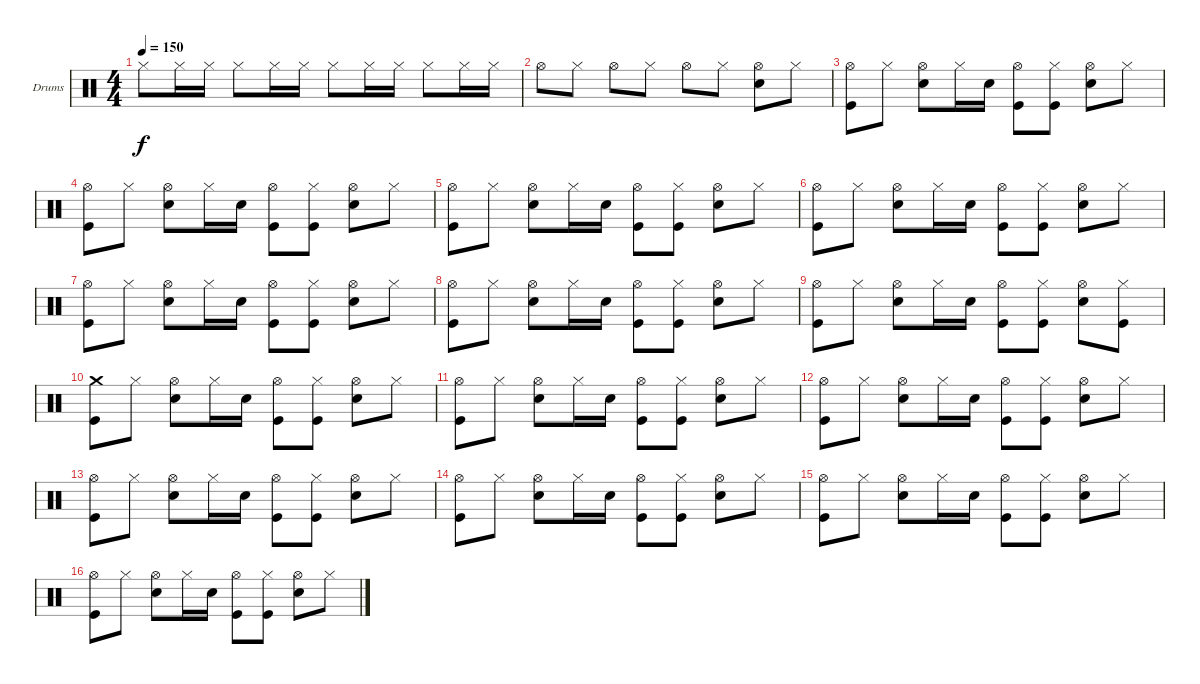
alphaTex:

\bracketExtendMode groupsimilarinstruments
\firstSystemTrackNameOrientation horizontal
\otherSystemsTrackNameOrientation horizontal
\track ("Drumkit" "Drums") {instrument percussion}
\staff {score}
\articulation defaults
\ts (4 4)
\beaming (8 2 2 2 2)
\tempo 150
\clef neutral
\ks c "Hi-Hat (closed)".8{dy f} "Hi-Hat (closed)".16 "Hi-Hat (closed)".16 "Hi-Hat (closed)".8 "Hi-Hat (closed)".16 "Hi-Hat (closed)".16 "Hi-Hat (closed)".8 "Hi-Hat (closed)".16 "Hi-Hat (closed)".16 "Hi-Hat (closed)".8 "Hi-Hat (closed)".16 "Hi-Hat (closed)".16
|
"Hi-Hat (open)".8 "Hi-Hat (closed)".8 "Hi-Hat (open)".8 "Hi-Hat (closed)".8 "Hi-Hat (open)".8 "Hi-Hat (closed)".8 ("Hi-Hat (open)" "Snare (hit) 2").8 "Hi-Hat (closed)".8 |
("Hi-Hat (open)" "Kick (hit)").8 "Hi-Hat (closed)".8 ("Hi-Hat (open)" "Snare (hit) 2").8 "Hi-Hat (closed)".16 "Snare (hit) 2".16 ("Hi-Hat (open)" "Kick (hit)").8 ("Hi-Hat (closed)" "Kick (hit)").8 ("Hi-Hat (open)" "Snare (hit) 2").8 "Hi-Hat (closed)".8 |
("Hi-Hat (open)" "Kick (hit)").8 "Hi-Hat (closed)".8 ("Hi-Hat (open)" "Snare (hit) 2").8 "Hi-Hat (closed)".16 "Snare (hit) 2".16 ("Hi-Hat (open)" "Kick (hit)").8 ("Hi-Hat (closed)" "Kick (hit)").8 ("Hi-Hat (open)" "Snare (hit) 2").8 "Hi-Hat (closed)".8 |
("Hi-Hat (open)" "Kick (hit)").8 "Hi-Hat (closed)".8 ("Hi-Hat (open)" "Snare (hit) 2").8 "Hi-Hat (closed)".16 "Snare (hit) 2".16 ("Hi-Hat (open)" "Kick (hit)").8 ("Hi-Hat (closed)" "Kick (hit)").8 ("Hi-Hat (open)" "Snare (hit) 2").8 "Hi-Hat (closed)".8 |
("Hi-Hat (open)" "Kick (hit)").8 "Hi-Hat (closed)".8 ("Hi-Hat (open)" "Snare (hit) 2").8 "Hi-Hat (closed)".16 "Snare (hit) 2".16 ("Hi-Hat (open)" "Kick (hit)").8 ("Hi-Hat (closed)" "Kick (hit)").8 ("Hi-Hat (open)" "Snare (hit) 2").8 "Hi-Hat (closed)".8 |
("Hi-Hat (open)" "Kick (hit)").8 "Hi-Hat (closed)".8 ("Hi-Hat (open)" "Snare (hit) 2").8 "Hi-Hat (closed)".16 "Snare (hit) 2".16 ("Hi-Hat (open)" "Kick (hit)").8 ("Hi-Hat (closed)" "Kick (hit)").8 ("Hi-Hat (open)" "Snare (hit) 2").8 "Hi-Hat (closed)".8 |
("Hi-Hat (open)" "Kick (hit)").8 "Hi-Hat (closed)".8 ("Hi-Hat (open)" "Snare (hit) 2").8 "Hi-Hat (closed)".16 "Snare (hit) 2".16 ("Hi-Hat (open)" "Kick (hit)").8 ("Hi-Hat (closed)" "Kick (hit)").8 ("Hi-Hat (open)" "Snare (hit) 2").8 "Hi-Hat (closed)".8 |
("Hi-Hat (open)" "Kick (hit)").8 "Hi-Hat (closed)".8 ("Hi-Hat (open)" "Snare (hit) 2").8 "Hi-Hat (closed)".16 "Snare (hit) 2".16 ("Hi-Hat (open)" "Kick (hit)").8 ("Hi-Hat (closed)" "Kick (hit)").8 ("Hi-Hat (open)" "Snare (hit) 2").8 ("Hi-Hat (closed)" "Kick (hit)").8 |
("Crash medium (hit)" "Kick (hit)").8 "Hi-Hat (closed)".8 ("Hi-Hat (open)" "Snare (hit) 2").8 "Hi-Hat (closed)".16 "Snare (hit) 2".16 ("Hi-Hat (open)" "Kick (hit)").8 ("Hi-Hat (closed)" "Kick (hit)").8 ("Hi-Hat (open)" "Snare (hit) 2").8 "Hi-Hat (closed)".8 |
("Hi-Hat (open)" "Kick (hit)").8 "Hi-Hat (closed)".8 ("Hi-Hat (open)" "Snare (hit) 2").8 "Hi-Hat (closed)".16 "Snare (hit) 2".16 ("Hi-Hat (open)" "Kick (hit)").8 ("Hi-Hat (closed)" "Kick (hit)").8 ("Hi-Hat (open)" "Snare (hit) 2").8 "Hi-Hat (closed)".8 |
("Hi-Hat (open)" "Kick (hit)").8 "Hi-Hat (closed)".8 ("Hi-Hat (open)" "Snare (hit) 2").8 "Hi-Hat (closed)".16 "Snare (hit) 2".16 ("Hi-Hat (open)" "Kick (hit)").8 ("Hi-Hat (closed)" "Kick (hit)").8 ("Hi-Hat (open)" "Snare (hit) 2").8 "Hi-Hat (closed)".8 |
("Hi-Hat (open)" "Kick (hit)").8 "Hi-Hat (closed)".8 ("Hi-Hat (open)" "Snare (hit) 2").8 "Hi-Hat (closed)".16 "Snare (hit) 2".16 ("Hi-Hat (open)" "Kick (hit)").8 ("Hi-Hat (closed)" "Kick (hit)").8 ("Hi-Hat (open)" "Snare (hit) 2").8 "Hi-Hat (closed)".8 |
("Hi-Hat (open)" "Kick (hit)").8 "Hi-Hat (closed)".8 ("Hi-Hat (open)" "Snare (hit) 2").8 "Hi-Hat (closed)".16 "Snare (hit) 2".16 ("Hi-Hat (open)" "Kick (hit)").8 ("Hi-Hat (closed)" "Kick (hit)").8 ("Hi-Hat (open)" "Snare (hit) 2").8 "Hi-Hat (closed)".8 |
("Hi-Hat (open)" "Kick (hit)").8 "Hi-Hat (closed)".8 ("Hi-Hat (open)" "Snare (hit) 2").8 "Hi-Hat (closed)".16 "Snare (hit) 2".16 ("Hi-Hat (open)" "Kick (hit)").8 ("Hi-Hat (closed)" "Kick (hit)").8 ("Hi-Hat (open)" "Snare (hit) 2").8 "Hi-Hat (closed)".8 |
("Hi-Hat (open)" "Kick (hit)").8 "Hi-Hat (closed)".8 ("Hi-Hat (open)" "Snare (hit) 2").8 "Hi-Hat (closed)".16 "Snare (hit) 2".16 ("Hi-Hat (open)" "Kick (hit)").8 ("Hi-Hat (closed)" "Kick (hit)").8 ("Hi-Hat (open)" "Snare (hit) 2").8 "Hi-Hat (closed)".8
